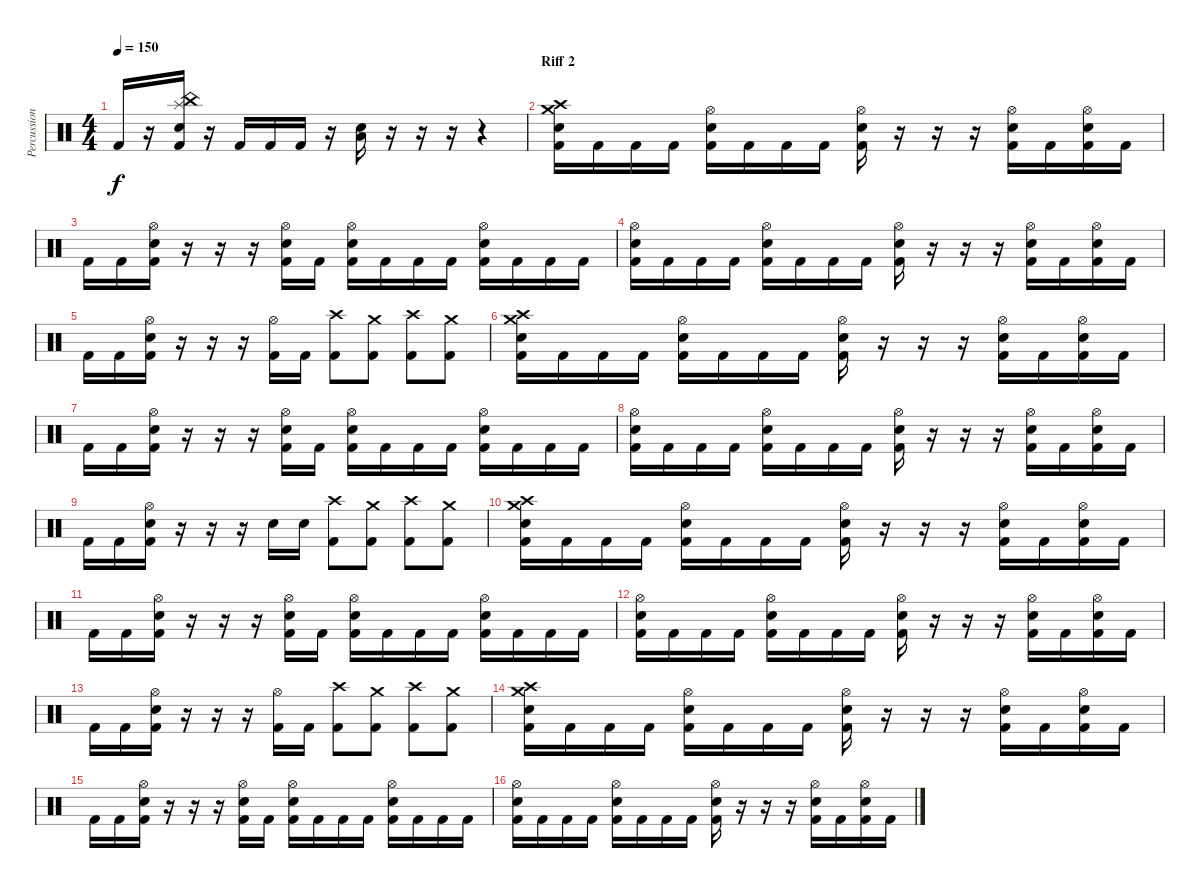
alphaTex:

\track ("Percussion" "Percussion") {instrument percussion}
\staff {score}
\articulation defaults
\ts (4 4)
\tempo 150
\clef neutral
\ks c "Kick (hit) 2".16{dy f}
r.16 ("Splash (hit)" "China (hit)" "Electric Snare (hit)" "Kick (hit) 2").16 r.16 "Kick (hit) 2".16 "Kick (hit) 2".16 "Kick (hit) 2".16 r.16 ("Electric Snare (hit)" "Low Floor Tom (hit)").16 r.16 r.16 r.16 r.4 |
\section ("" "Riff 2")
("Crash medium (hit)" "Crash high (hit)" "Electric Snare (hit)" "Kick (hit) 2").16 "Kick (hit) 2".16 "Kick (hit) 2".16 "Kick (hit) 2".16 ("Hi-Hat (open)" "Electric Snare (hit)" "Kick (hit) 2").16 "Kick (hit) 2".16 "Kick (hit) 2".16 "Kick (hit) 2".16 ("Hi-Hat (open)" "Electric Snare (hit)" "Kick (hit) 2").16 r.16 r.16 r.16 ("Hi-Hat (open)" "Electric Snare (hit)" "Kick (hit) 2").16 "Kick (hit) 2".16 ("Hi-Hat (open)" "Electric Snare (hit)" "Kick (hit) 2").16 "Kick (hit) 2".16 |
"Kick (hit) 2".16 "Kick (hit) 2".16 ("Hi-Hat (open)" "Electric Snare (hit)" "Kick (hit) 2").16 r.16 r.16 r.16 ("Hi-Hat (open)" "Electric Snare (hit)" "Kick (hit) 2").16 "Kick (hit) 2".16 ("Hi-Hat (open)" "Electric Snare (hit)" "Kick (hit) 2").16 "Kick (hit) 2".16 "Kick (hit) 2".16 "Kick (hit) 2".16 ("Hi-Hat (open)" "Electric Snare (hit)" "Kick (hit) 2").16 "Kick (hit) 2".16 "Kick (hit) 2".16 "Kick (hit) 2".16 |
("Hi-Hat (open)" "Electric Snare (hit)" "Kick (hit) 2").16 "Kick (hit) 2".16 "Kick (hit) 2".16 "Kick (hit) 2".16 ("Hi-Hat (open)" "Electric Snare (hit)" "Kick (hit) 2").16 "Kick (hit) 2".16 "Kick (hit) 2".16 "Kick (hit) 2".16 ("Hi-Hat (open)" "Electric Snare (hit)" "Kick (hit) 2").16 r.16 r.16 r.16 ("Hi-Hat (open)" "Electric Snare (hit)" "Kick (hit) 2").16 "Kick (hit) 2".16 ("Hi-Hat (open)" "Electric Snare (hit)" "Kick (hit) 2").16 "Kick (hit) 2".16 |
"Kick (hit) 2".16 "Kick (hit) 2".16 ("Hi-Hat (open)" "Electric Snare (hit)" "Kick (hit) 2").16 r.16 r.16 r.16 ("Hi-Hat (open)" "Kick (hit) 2").16 "Kick (hit) 2".16 ("Crash high (hit)" "Kick (hit) 2").8 ("Crash medium (hit)" "Kick (hit) 2").8 ("Crash high (hit)" "Kick (hit) 2").8 ("Crash medium (hit)" "Kick (hit) 2").8 |
("Crash medium (hit)" "Crash high (hit)" "Electric Snare (hit)" "Kick (hit) 2").16 "Kick (hit) 2".16 "Kick (hit) 2".16 "Kick (hit) 2".16 ("Hi-Hat (open)" "Electric Snare (hit)" "Kick (hit) 2").16 "Kick (hit) 2".16 "Kick (hit) 2".16 "Kick (hit) 2".16 ("Hi-Hat (open)" "Electric Snare (hit)" "Kick (hit) 2").16 r.16 r.16 r.16 ("Hi-Hat (open)" "Electric Snare (hit)" "Kick (hit) 2").16 "Kick (hit) 2".16 ("Hi-Hat (open)" "Electric Snare (hit)" "Kick (hit) 2").16 "Kick (hit) 2".16 |
"Kick (hit) 2".16 "Kick (hit) 2".16 ("Hi-Hat (open)" "Electric Snare (hit)" "Kick (hit) 2").16 r.16 r.16 r.16 ("Hi-Hat (open)" "Electric Snare (hit)" "Kick (hit) 2").16 "Kick (hit) 2".16 ("Hi-Hat (open)" "Electric Snare (hit)" "Kick (hit) 2").16 "Kick (hit) 2".16 "Kick (hit) 2".16 "Kick (hit) 2".16 ("Hi-Hat (open)" "Electric Snare (hit)" "Kick (hit) 2").16 "Kick (hit) 2".16 "Kick (hit) 2".16 "Kick (hit) 2".16 |
("Hi-Hat (open)" "Electric Snare (hit)" "Kick (hit) 2").16 "Kick (hit) 2".16 "Kick (hit) 2".16 "Kick (hit) 2".16 ("Hi-Hat (open)" "Electric Snare (hit)" "Kick (hit) 2").16 "Kick (hit) 2".16 "Kick (hit) 2".16 "Kick (hit) 2".16 ("Hi-Hat (open)" "Electric Snare (hit)" "Kick (hit) 2").16 r.16 r.16 r.16 ("Hi-Hat (open)" "Electric Snare (hit)" "Kick (hit) 2").16 "Kick (hit) 2".16 ("Hi-Hat (open)" "Electric Snare (hit)" "Kick (hit) 2").16 "Kick (hit) 2".16 |
"Kick (hit) 2".16 "Kick (hit) 2".16 ("Hi-Hat (open)" "Electric Snare (hit)" "Kick (hit) 2").16 r.16 r.16 r.16 "Electric Snare (hit)".16 "Electric Snare (hit)".16 ("Crash high (hit)" "Kick (hit) 2").8 ("Crash medium (hit)" "Kick (hit) 2").8 ("Crash high (hit)" "Kick (hit) 2").8 ("Crash medium (hit)" "Kick (hit) 2").8 |
("Crash medium (hit)" "Crash high (hit)" "Electric Snare (hit)" "Kick (hit) 2").16 "Kick (hit) 2".16 "Kick (hit) 2".16 "Kick (hit) 2".16 ("Hi-Hat (open)" "Electric Snare (hit)" "Kick (hit) 2").16 "Kick (hit) 2".16 "Kick (hit) 2".16 "Kick (hit) 2".16 ("Hi-Hat (open)" "Electric Snare (hit)" "Kick (hit) 2").16 r.16 r.16 r.16 ("Hi-Hat (open)" "Electric Snare (hit)" "Kick (hit) 2").16 "Kick (hit) 2".16 ("Hi-Hat (open)" "Electric Snare (hit)" "Kick (hit) 2").16 "Kick (hit) 2".16 |
"Kick (hit) 2".16 "Kick (hit) 2".16 ("Hi-Hat (open)" "Electric Snare (hit)" "Kick (hit) 2").16 r.16 r.16 r.16 ("Hi-Hat (open)" "Electric Snare (hit)" "Kick (hit) 2").16 "Kick (hit) 2".16 ("Hi-Hat (open)" "Electric Snare (hit)" "Kick (hit) 2").16 "Kick (hit) 2".16 "Kick (hit) 2".16 "Kick (hit) 2".16 ("Hi-Hat (open)" "Electric Snare (hit)" "Kick (hit) 2").16 "Kick (hit) 2".16 "Kick (hit) 2".16 "Kick (hit) 2".16 |
("Hi-Hat (open)" "Electric Snare (hit)" "Kick (hit) 2").16 "Kick (hit) 2".16 "Kick (hit) 2".16 "Kick (hit) 2".16 ("Hi-Hat (open)" "Electric Snare (hit)" "Kick (hit) 2").16 "Kick (hit) 2".16 "Kick (hit) 2".16 "Kick (hit) 2".16 ("Hi-Hat (open)" "Electric Snare (hit)" "Kick (hit) 2").16 r.16 r.16 r.16 ("Hi-Hat (open)" "Electric Snare (hit)" "Kick (hit) 2").16 "Kick (hit) 2".16 ("Hi-Hat (open)" "Electric Snare (hit)" "Kick (hit) 2").16 "Kick (hit) 2".16 |
"Kick (hit) 2".16 "Kick (hit) 2".16 ("Hi-Hat (open)" "Electric Snare (hit)" "Kick (hit) 2").16 r.16 r.16 r.16 ("Hi-Hat (open)" "Kick (hit) 2").16 "Kick (hit) 2".16 ("Crash high (hit)" "Kick (hit) 2").8 ("Crash medium (hit)" "Kick (hit) 2").8 ("Crash high (hit)" "Kick (hit) 2").8 ("Crash medium (hit)" "Kick (hit) 2").8 |
("Crash medium (hit)" "Crash high (hit)" "Electric Snare (hit)" "Kick (hit) 2").16 "Kick (hit) 2".16 "Kick (hit) 2".16 "Kick (hit) 2".16 ("Hi-Hat (open)" "Electric Snare (hit)" "Kick (hit) 2").16 "Kick (hit) 2".16 "Kick (hit) 2".16 "Kick (hit) 2".16 ("Hi-Hat (open)" "Electric Snare (hit)" "Kick (hit) 2").16 r.16 r.16 r.16 ("Hi-Hat (open)" "Electric Snare (hit)" "Kick (hit) 2").16 "Kick (hit) 2".16 ("Hi-Hat (open)" "Electric Snare (hit)" "Kick (hit) 2").16 "Kick (hit) 2".16 |
"Kick (hit) 2".16 "Kick (hit) 2".16 ("Hi-Hat (open)" "Electric Snare (hit)" "Kick (hit) 2").16 r.16 r.16 r.16 ("Hi-Hat (open)" "Electric Snare (hit)" "Kick (hit) 2").16 "Kick (hit) 2".16 ("Hi-Hat (open)" "Electric Snare (hit)" "Kick (hit) 2").16 "Kick (hit) 2".16 "Kick (hit) 2".16 "Kick (hit) 2".16 ("Hi-Hat (open)" "Electric Snare (hit)" "Kick (hit) 2").16 "Kick (hit) 2".16 "Kick (hit) 2".16 "Kick (hit) 2".16 |
("Hi-Hat (open)" "Electric Snare (hit)" "Kick (hit) 2").16 "Kick (hit) 2".16 "Kick (hit) 2".16 "Kick (hit) 2".16 ("Hi-Hat (open)" "Electric Snare (hit)" "Kick (hit) 2").16 "Kick (hit) 2".16 "Kick (hit) 2".16 "Kick (hit) 2".16 ("Hi-Hat (open)" "Electric Snare (hit)" "Kick (hit) 2").16 r.16 r.16 r.16 ("Hi-Hat (open)" "Electric Snare (hit)" "Kick (hit) 2").16 "Kick (hit) 2".16 ("Hi-Hat (open)" "Electric Snare (hit)" "Kick (hit) 2").16 "Kick (hit) 2".16
